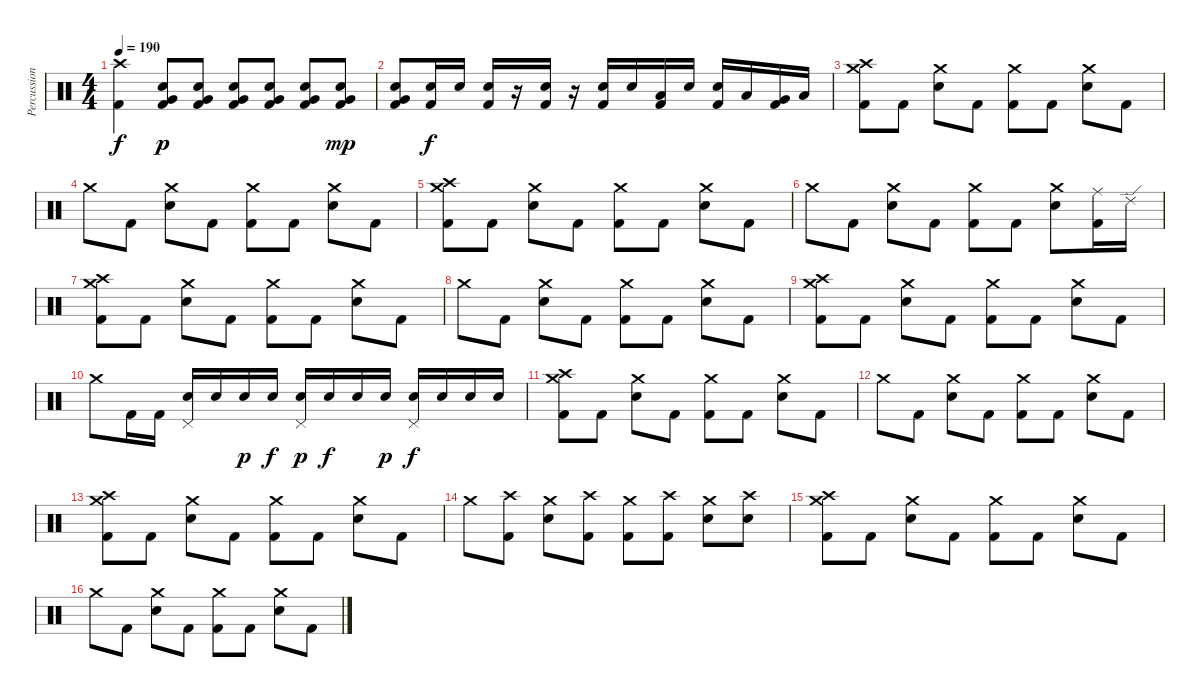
\track ("Percussion" "Percussion") {instrument percussion}
\staff {score}
\articulation defaults
\ts (4 4)
\tempo 190
\clef neutral
\ks c
("Crash high (hit)" "Kick (hit) 2").4{dy f} ("Electric Snare (hit)" "Very Low Tom (hit)" "Kick (hit) 2").8{dy p} ("Electric Snare (hit)" "Very Low Tom (hit)" "Kick (hit) 2").8 ("Electric Snare (hit)" "Very Low Tom (hit)" "Kick (hit) 2").8 ("Electric Snare (hit)" "Very Low Tom (hit)" "Kick (hit) 2").8 ("Electric Snare (hit)" "Very Low Tom (hit)" "Kick (hit) 2").8 ("Electric Snare (hit)" "Very Low Tom (hit)" "Kick (hit) 2").8{dy mp} |
("Electric Snare (hit)" "Very Low Tom (hit)" "Kick (hit) 2").8 ("Electric Snare (hit)" "Kick (hit) 2").16{dy f} "Electric Snare (hit)".16 ("Electric Snare (hit)" "Kick (hit) 2").16 r.16 ("Electric Snare (hit)" "Kick (hit) 2").16 r.16 ("Electric Snare (hit)" "Kick (hit) 2").16 "Electric Snare (hit)".16 ("Low Tom (hit)" "Kick (hit) 2").16 "Electric Snare (hit)".16 ("Electric Snare (hit)" "Kick (hit) 2").16 "Low Tom (hit)".16 ("Very Low Tom (hit)" "Kick (hit) 2").16 "Low Floor Tom (hit)".16 |
("Crash high (hit)" "Crash medium (hit)" "Kick (hit) 2").8 "Kick (hit) 2".8 ("Crash medium (hit)" "Electric Snare (hit)").8 "Kick (hit) 2".8 ("Crash medium (hit)" "Kick (hit) 2").8 "Kick (hit) 2".8 ("Crash medium (hit)" "Electric Snare (hit)").8 "Kick (hit) 2".8 |
"Crash medium (hit)".8 "Kick (hit) 2".8 ("Crash medium (hit)" "Electric Snare (hit)").8 "Kick (hit) 2".8 ("Crash medium (hit)" "Kick (hit) 2").8 "Kick (hit) 2".8 ("Crash medium (hit)" "Electric Snare (hit)").8 "Kick (hit) 2".8 |
("Crash high (hit)" "Crash medium (hit)" "Kick (hit) 2").8 "Kick (hit) 2".8 ("Crash medium (hit)" "Electric Snare (hit)").8 "Kick (hit) 2".8 ("Crash medium (hit)" "Kick (hit) 2").8 "Kick (hit) 2".8 ("Crash medium (hit)" "Electric Snare (hit)").8 "Kick (hit) 2".8 |
"Crash medium (hit)".8 "Kick (hit) 2".8 ("Crash medium (hit)" "Electric Snare (hit)").8 "Kick (hit) 2".8 ("Crash medium (hit)" "Kick (hit) 2").8 "Kick (hit) 2".8 ("Crash medium (hit)" "Electric Snare (hit)").8 ("Ride (middle)" "Kick (hit) 2").16 "Ride (edge) 2".16 |
("Crash high (hit)" "Crash medium (hit)" "Kick (hit) 2").8 "Kick (hit) 2".8 ("Crash medium (hit)" "Electric Snare (hit)").8 "Kick (hit) 2".8 ("Crash medium (hit)" "Kick (hit) 2").8 "Kick (hit) 2".8 ("Crash medium (hit)" "Electric Snare (hit)").8 "Kick (hit) 2".8 |
"Crash medium (hit)".8 "Kick (hit) 2".8 ("Crash medium (hit)" "Electric Snare (hit)").8 "Kick (hit) 2".8 ("Crash medium (hit)" "Kick (hit) 2").8 "Kick (hit) 2".8 ("Crash medium (hit)" "Electric Snare (hit)").8 "Kick (hit) 2".8 |
("Crash high (hit)" "Crash medium (hit)" "Kick (hit) 2").8 "Kick (hit) 2".8 ("Crash medium (hit)" "Electric Snare (hit)").8 "Kick (hit) 2".8 ("Crash medium (hit)" "Kick (hit) 2").8 "Kick (hit) 2".8 ("Crash medium (hit)" "Electric Snare (hit)").8 "Kick (hit) 2".8 |
"Crash medium (hit)".8 "Kick (hit) 2".16 "Kick (hit) 2".16 ("Pedal Hi-Hat (hit)" "Electric Snare (hit)").16 "Electric Snare (hit)".16 "Electric Snare (hit)".16{dy p} "Electric Snare (hit)".16{dy f} ("Pedal Hi-Hat (hit)" "Electric Snare (hit)").16{dy p} "Electric Snare (hit)".16{dy f} "Electric Snare (hit)".16 "Electric Snare (hit)".16{dy p} ("Pedal Hi-Hat (hit)" "Electric Snare (hit)").16{dy f} "Electric Snare (hit)".16 "Electric Snare (hit)".16 "Electric Snare (hit)".16 |
("Crash high (hit)" "Crash medium (hit)" "Kick (hit) 2").8 "Kick (hit) 2".8 ("Crash medium (hit)" "Electric Snare (hit)").8 "Kick (hit) 2".8 ("Crash medium (hit)" "Kick (hit) 2").8 "Kick (hit) 2".8 ("Crash medium (hit)" "Electric Snare (hit)").8 "Kick (hit) 2".8 |
"Crash medium (hit)".8 "Kick (hit) 2".8 ("Crash medium (hit)" "Electric Snare (hit)").8 "Kick (hit) 2".8 ("Crash medium (hit)" "Kick (hit) 2").8 "Kick (hit) 2".8 ("Crash medium (hit)" "Electric Snare (hit)").8 "Kick (hit) 2".8 |
("Crash high (hit)" "Crash medium (hit)" "Kick (hit) 2").8 "Kick (hit) 2".8 ("Crash medium (hit)" "Electric Snare (hit)").8 "Kick (hit) 2".8 ("Crash medium (hit)" "Kick (hit) 2").8 "Kick (hit) 2".8 ("Crash medium (hit)" "Electric Snare (hit)").8 "Kick (hit) 2".8 |
"Crash medium (hit)".8 ("Crash high (hit)" "Kick (hit) 2").8 ("Crash medium (hit)" "Electric Snare (hit)").8 ("Crash high (hit)" "Kick (hit) 2").8 ("Crash medium (hit)" "Kick (hit) 2").8 ("Crash high (hit)" "Kick (hit) 2").8 ("Crash medium (hit)" "Electric Snare (hit)").8 ("Crash high (hit)" "Electric Snare (hit)").8 |
("Crash high (hit)" "Crash medium (hit)" "Kick (hit) 2").8 "Kick (hit) 2".8 ("Crash medium (hit)" "Electric Snare (hit)").8 "Kick (hit) 2".8 ("Crash medium (hit)" "Kick (hit) 2").8 "Kick (hit) 2".8 ("Crash medium (hit)" "Electric Snare (hit)").8 "Kick (hit) 2".8 |
"Crash medium (hit)".8 "Kick (hit) 2".8 ("Crash medium (hit)" "Electric Snare (hit)").8 "Kick (hit) 2".8 ("Crash medium (hit)" "Kick (hit) 2").8 "Kick (hit) 2".8 ("Crash medium (hit)" "Electric Snare (hit)").8 "Kick (hit) 2".8
